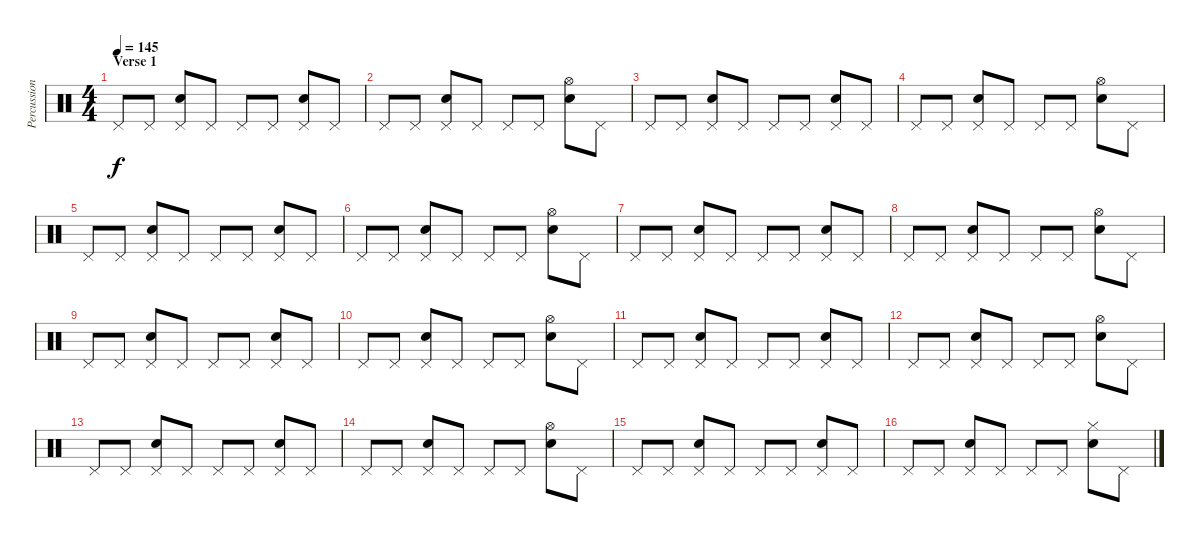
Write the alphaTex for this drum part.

\track ("Percussion" "Percussion") {instrument percussion}
\staff {score}
\articulation defaults
\ts (4 4)
\section ("" "Verse 1")
\tempo 145
\clef neutral
\ks c "Pedal Hi-Hat (hit)".8{dy f} "Pedal Hi-Hat (hit)".8
("Pedal Hi-Hat (hit)" "Electric Snare (hit)").8 "Pedal Hi-Hat (hit)".8 "Pedal Hi-Hat (hit)".8 "Pedal Hi-Hat (hit)".8 ("Pedal Hi-Hat (hit)" "Electric Snare (hit)").8 "Pedal Hi-Hat (hit)".8 |
"Pedal Hi-Hat (hit)".8 "Pedal Hi-Hat (hit)".8 ("Pedal Hi-Hat (hit)" "Electric Snare (hit)").8 "Pedal Hi-Hat (hit)".8 "Pedal Hi-Hat (hit)".8 "Pedal Hi-Hat (hit)".8 ("Hi-Hat (open)" "Electric Snare (hit)").8 "Pedal Hi-Hat (hit)".8 |
"Pedal Hi-Hat (hit)".8 "Pedal Hi-Hat (hit)".8 ("Pedal Hi-Hat (hit)" "Electric Snare (hit)").8 "Pedal Hi-Hat (hit)".8 "Pedal Hi-Hat (hit)".8 "Pedal Hi-Hat (hit)".8 ("Pedal Hi-Hat (hit)" "Electric Snare (hit)").8 "Pedal Hi-Hat (hit)".8 |
"Pedal Hi-Hat (hit)".8 "Pedal Hi-Hat (hit)".8 ("Pedal Hi-Hat (hit)" "Electric Snare (hit)").8 "Pedal Hi-Hat (hit)".8 "Pedal Hi-Hat (hit)".8 "Pedal Hi-Hat (hit)".8 ("Hi-Hat (open)" "Electric Snare (hit)").8 "Pedal Hi-Hat (hit)".8 |
"Pedal Hi-Hat (hit)".8 "Pedal Hi-Hat (hit)".8 ("Pedal Hi-Hat (hit)" "Electric Snare (hit)").8 "Pedal Hi-Hat (hit)".8 "Pedal Hi-Hat (hit)".8 "Pedal Hi-Hat (hit)".8 ("Pedal Hi-Hat (hit)" "Electric Snare (hit)").8 "Pedal Hi-Hat (hit)".8 |
"Pedal Hi-Hat (hit)".8 "Pedal Hi-Hat (hit)".8 ("Pedal Hi-Hat (hit)" "Electric Snare (hit)").8 "Pedal Hi-Hat (hit)".8 "Pedal Hi-Hat (hit)".8 "Pedal Hi-Hat (hit)".8 ("Hi-Hat (open)" "Electric Snare (hit)").8 "Pedal Hi-Hat (hit)".8 |
"Pedal Hi-Hat (hit)".8 "Pedal Hi-Hat (hit)".8 ("Pedal Hi-Hat (hit)" "Electric Snare (hit)").8 "Pedal Hi-Hat (hit)".8 "Pedal Hi-Hat (hit)".8 "Pedal Hi-Hat (hit)".8 ("Pedal Hi-Hat (hit)" "Electric Snare (hit)").8 "Pedal Hi-Hat (hit)".8 |
"Pedal Hi-Hat (hit)".8 "Pedal Hi-Hat (hit)".8 ("Pedal Hi-Hat (hit)" "Electric Snare (hit)").8 "Pedal Hi-Hat (hit)".8 "Pedal Hi-Hat (hit)".8 "Pedal Hi-Hat (hit)".8 ("Hi-Hat (open)" "Electric Snare (hit)").8 "Pedal Hi-Hat (hit)".8 |
"Pedal Hi-Hat (hit)".8 "Pedal Hi-Hat (hit)".8 ("Pedal Hi-Hat (hit)" "Electric Snare (hit)").8 "Pedal Hi-Hat (hit)".8 "Pedal Hi-Hat (hit)".8 "Pedal Hi-Hat (hit)".8 ("Pedal Hi-Hat (hit)" "Electric Snare (hit)").8 "Pedal Hi-Hat (hit)".8 |
"Pedal Hi-Hat (hit)".8 "Pedal Hi-Hat (hit)".8 ("Pedal Hi-Hat (hit)" "Electric Snare (hit)").8 "Pedal Hi-Hat (hit)".8 "Pedal Hi-Hat (hit)".8 "Pedal Hi-Hat (hit)".8 ("Hi-Hat (open)" "Electric Snare (hit)").8 "Pedal Hi-Hat (hit)".8 |
"Pedal Hi-Hat (hit)".8 "Pedal Hi-Hat (hit)".8 ("Pedal Hi-Hat (hit)" "Electric Snare (hit)").8 "Pedal Hi-Hat (hit)".8 "Pedal Hi-Hat (hit)".8 "Pedal Hi-Hat (hit)".8 ("Pedal Hi-Hat (hit)" "Electric Snare (hit)").8 "Pedal Hi-Hat (hit)".8 |
"Pedal Hi-Hat (hit)".8 "Pedal Hi-Hat (hit)".8 ("Pedal Hi-Hat (hit)" "Electric Snare (hit)").8 "Pedal Hi-Hat (hit)".8 "Pedal Hi-Hat (hit)".8 "Pedal Hi-Hat (hit)".8 ("Hi-Hat (open)" "Electric Snare (hit)").8 "Pedal Hi-Hat (hit)".8 |
"Pedal Hi-Hat (hit)".8 "Pedal Hi-Hat (hit)".8 ("Pedal Hi-Hat (hit)" "Electric Snare (hit)").8 "Pedal Hi-Hat (hit)".8 "Pedal Hi-Hat (hit)".8 "Pedal Hi-Hat (hit)".8 ("Pedal Hi-Hat (hit)" "Electric Snare (hit)").8 "Pedal Hi-Hat (hit)".8 |
"Pedal Hi-Hat (hit)".8 "Pedal Hi-Hat (hit)".8 ("Pedal Hi-Hat (hit)" "Electric Snare (hit)").8 "Pedal Hi-Hat (hit)".8 "Pedal Hi-Hat (hit)".8 "Pedal Hi-Hat (hit)".8 ("Hi-Hat (open)" "Electric Snare (hit)").8 "Pedal Hi-Hat (hit)".8 |
"Pedal Hi-Hat (hit)".8 "Pedal Hi-Hat (hit)".8 ("Pedal Hi-Hat (hit)" "Electric Snare (hit)").8 "Pedal Hi-Hat (hit)".8 "Pedal Hi-Hat (hit)".8 "Pedal Hi-Hat (hit)".8 ("Pedal Hi-Hat (hit)" "Electric Snare (hit)").8 "Pedal Hi-Hat (hit)".8 |
"Pedal Hi-Hat (hit)".8 "Pedal Hi-Hat (hit)".8 ("Pedal Hi-Hat (hit)" "Electric Snare (hit)").8 "Pedal Hi-Hat (hit)".8 "Pedal Hi-Hat (hit)".8 "Pedal Hi-Hat (hit)".8 ("Hi-Hat (closed)" "Electric Snare (hit)").8 "Pedal Hi-Hat (hit)".8
